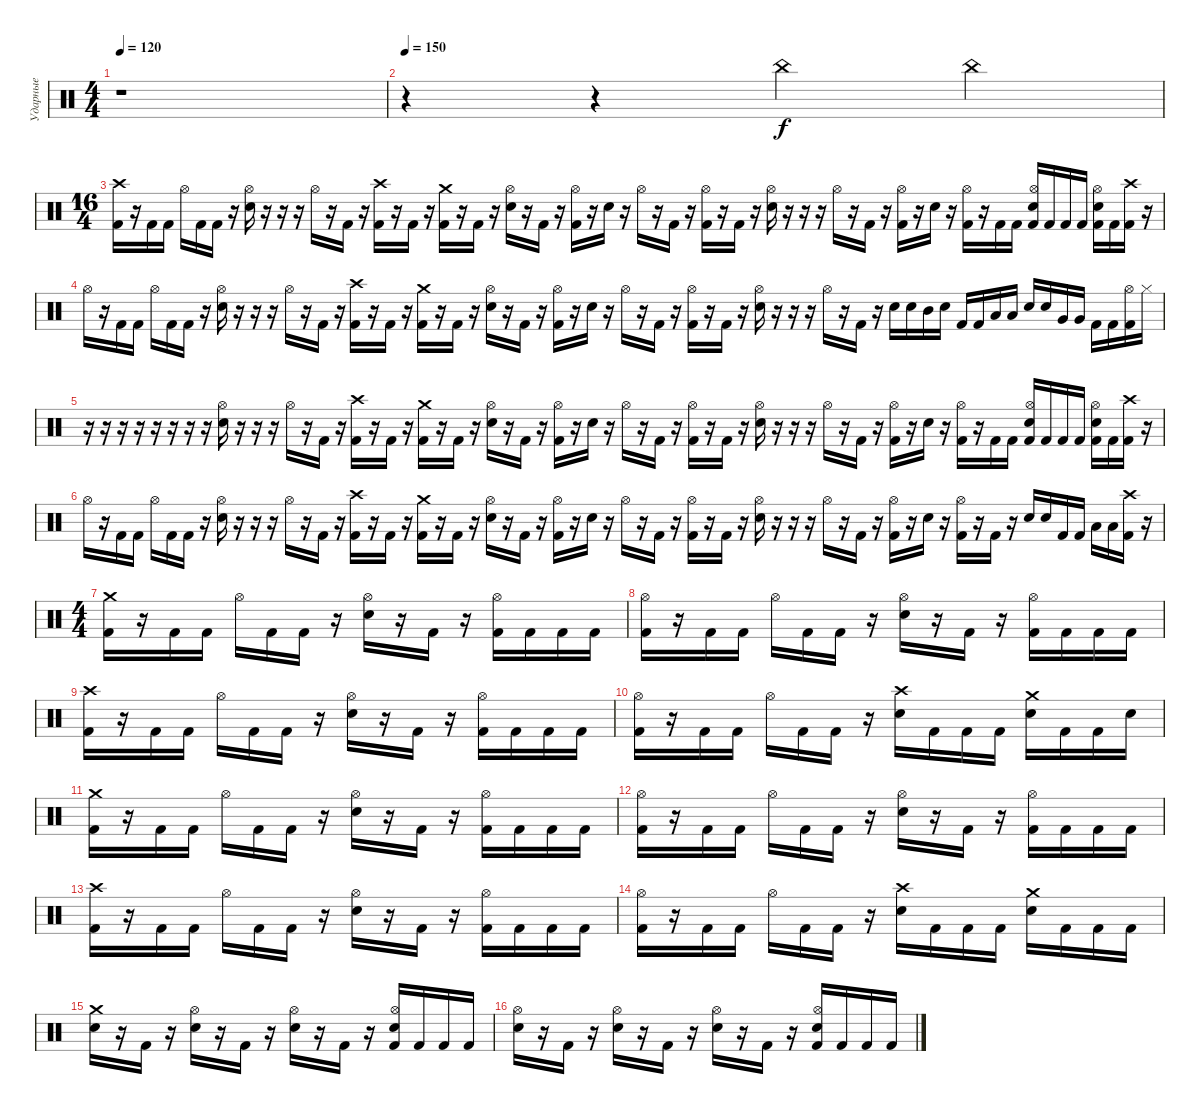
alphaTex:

\track ("Ударные" "Ударные") {instrument percussion}
\staff {score}
\articulation defaults
\ts (4 4)
\tempo 120
\clef neutral
\ks c
r.1{dy f} |
\tempo 150
r.4 r.4 "China (hit)".4 "China (hit)".4 |
\ts (16 4)
("Kick (hit) 2" "Crash high (hit)").16 r.16 "Kick (hit) 2".16 "Kick (hit) 2".16 "Hi-Hat (open)".16 "Kick (hit) 2".16 "Kick (hit) 2".16 r.16 ("Electric Snare (hit)" "Hi-Hat (open)").16 r.16 r.16 r.16 "Hi-Hat (open)".16 r.16 "Kick (hit) 2".16 r.16 ("Kick (hit) 2" "Crash high (hit)").16 r.16 "Kick (hit) 2".16 r.16 ("Kick (hit) 2" "Crash medium (hit)").16 r.16 "Kick (hit) 2".16 r.16 ("Electric Snare (hit)" "Hi-Hat (open)").16 r.16 "Kick (hit) 2".16 r.16 ("Kick (hit) 2" "Hi-Hat (open)").16 r.16 "Electric Snare (hit)".16 r.16 "Hi-Hat (open)".16 r.16 "Kick (hit) 2".16 r.16 ("Kick (hit) 2" "Hi-Hat (open)").16 r.16 "Kick (hit) 2".16 r.16 ("Electric Snare (hit)" "Hi-Hat (open)").16 r.16 r.16 r.16 "Hi-Hat (open)".16 r.16 "Kick (hit) 2".16 r.16 ("Kick (hit) 2" "Hi-Hat (open)").16 r.16 "Electric Snare (hit)".16 r.16 ("Kick (hit) 2" "Hi-Hat (open)").16 r.16 "Kick (hit) 2".16 "Kick (hit) 2".16 ("Kick (hit) 2" "Electric Snare (hit)" "Hi-Hat (open)").16 "Kick (hit) 2".16 "Kick (hit) 2".16 "Kick (hit) 2".16 ("Kick (hit) 2" "Electric Snare (hit)" "Hi-Hat (open)").16 "Kick (hit) 2".16 ("Kick (hit) 2" "Crash high (hit)").16 r.16 |
"Hi-Hat (open)".16 r.16 "Kick (hit) 2".16 "Kick (hit) 2".16 "Hi-Hat (open)".16 "Kick (hit) 2".16 "Kick (hit) 2".16 r.16 ("Electric Snare (hit)" "Hi-Hat (open)").16 r.16 r.16 r.16 "Hi-Hat (open)".16 r.16 "Kick (hit) 2".16 r.16 ("Kick (hit) 2" "Crash high (hit)").16 r.16 "Kick (hit) 2".16 r.16 ("Kick (hit) 2" "Crash medium (hit)").16 r.16 "Kick (hit) 2".16 r.16 ("Electric Snare (hit)" "Hi-Hat (open)").16 r.16 "Kick (hit) 2".16 r.16 ("Kick (hit) 2" "Hi-Hat (open)").16 r.16 "Electric Snare (hit)".16 r.16 "Hi-Hat (open)".16 r.16 "Kick (hit) 2".16 r.16 ("Kick (hit) 2" "Hi-Hat (open)").16 r.16 "Kick (hit) 2".16 r.16 ("Electric Snare (hit)" "Hi-Hat (open)").16 r.16 r.16 r.16 "Hi-Hat (open)".16 r.16 "Kick (hit) 2".16 r.16 "Electric Snare (hit)".16 "Electric Snare (hit)".16 "Mid Tom (hit)".16 "Electric Snare (hit)".16 "Kick (hit) 2".16 "Kick (hit) 2".16 "Low Tom (hit)".16 "Low Tom (hit)".16 "Electric Snare (hit)".16 "Electric Snare (hit)".16 "Very Low Tom (hit)".16 "Very Low Tom (hit)".16 "Kick (hit) 2".16 "Kick (hit) 2".16 ("Kick (hit) 2" "Hi-Hat (open)").16 "Hi-Hat (closed)".16 |
r.16 r.16 r.16 r.16 r.16 r.16 r.16 r.16 ("Electric Snare (hit)" "Hi-Hat (open)").16 r.16 r.16 r.16 "Hi-Hat (open)".16 r.16 "Kick (hit) 2".16 r.16 ("Kick (hit) 2" "Crash high (hit)").16 r.16 "Kick (hit) 2".16 r.16 ("Kick (hit) 2" "Crash medium (hit)").16 r.16 "Kick (hit) 2".16 r.16 ("Electric Snare (hit)" "Hi-Hat (open)").16 r.16 "Kick (hit) 2".16 r.16 ("Kick (hit) 2" "Hi-Hat (open)").16 r.16 "Electric Snare (hit)".16 r.16 "Hi-Hat (open)".16 r.16 "Kick (hit) 2".16 r.16 ("Kick (hit) 2" "Hi-Hat (open)").16 r.16 "Kick (hit) 2".16 r.16 ("Electric Snare (hit)" "Hi-Hat (open)").16 r.16 r.16 r.16 "Hi-Hat (open)".16 r.16 "Kick (hit) 2".16 r.16 ("Kick (hit) 2" "Hi-Hat (open)").16 r.16 "Electric Snare (hit)".16 r.16 ("Kick (hit) 2" "Hi-Hat (open)").16 r.16 "Kick (hit) 2".16 "Kick (hit) 2".16 ("Kick (hit) 2" "Electric Snare (hit)" "Hi-Hat (open)").16 "Kick (hit) 2".16 "Kick (hit) 2".16 "Kick (hit) 2".16 ("Kick (hit) 2" "Electric Snare (hit)" "Hi-Hat (open)").16 "Kick (hit) 2".16 ("Kick (hit) 2" "Crash high (hit)").16 r.16 |
"Hi-Hat (open)".16 r.16 "Kick (hit) 2".16 "Kick (hit) 2".16 "Hi-Hat (open)".16 "Kick (hit) 2".16 "Kick (hit) 2".16 r.16 ("Electric Snare (hit)" "Hi-Hat (open)").16 r.16 r.16 r.16 "Hi-Hat (open)".16 r.16 "Kick (hit) 2".16 r.16 ("Kick (hit) 2" "Crash high (hit)").16 r.16 "Kick (hit) 2".16 r.16 ("Kick (hit) 2" "Crash medium (hit)").16 r.16 "Kick (hit) 2".16 r.16 ("Electric Snare (hit)" "Hi-Hat (open)").16 r.16 "Kick (hit) 2".16 r.16 ("Kick (hit) 2" "Hi-Hat (open)").16 r.16 "Electric Snare (hit)".16 r.16 "Hi-Hat (open)".16 r.16 "Kick (hit) 2".16 r.16 ("Kick (hit) 2" "Hi-Hat (open)").16 r.16 "Kick (hit) 2".16 r.16 ("Electric Snare (hit)" "Hi-Hat (open)").16 r.16 r.16 r.16 "Hi-Hat (open)".16 r.16 "Kick (hit) 2".16 r.16 ("Kick (hit) 2" "Hi-Hat (open)").16 r.16 "Electric Snare (hit)".16 r.16 ("Kick (hit) 2" "Hi-Hat (open)").16 r.16 "Kick (hit) 2".16 r.16 "Electric Snare (hit)".16 "Electric Snare (hit)".16 "Kick (hit) 2".16 "Kick (hit) 2".16 "Low Tom (hit)".16 "Low Tom (hit)".16 ("Kick (hit) 2" "Crash high (hit)").16 r.16 |
\ts (4 4)
("Kick (hit) 2" "Crash medium (hit)").16 r.16 "Kick (hit) 2".16 "Kick (hit) 2".16 "Hi-Hat (open)".16 "Kick (hit) 2".16 "Kick (hit) 2".16 r.16 ("Electric Snare (hit)" "Hi-Hat (open)").16 r.16 "Kick (hit) 2".16 r.16 ("Kick (hit) 2" "Hi-Hat (open)").16 "Kick (hit) 2".16 "Kick (hit) 2".16 "Kick (hit) 2".16 |
("Kick (hit) 2" "Hi-Hat (open)").16 r.16 "Kick (hit) 2".16 "Kick (hit) 2".16 "Hi-Hat (open)".16 "Kick (hit) 2".16 "Kick (hit) 2".16 r.16 ("Electric Snare (hit)" "Hi-Hat (open)").16 r.16 "Kick (hit) 2".16 r.16 ("Kick (hit) 2" "Hi-Hat (open)").16 "Kick (hit) 2".16 "Kick (hit) 2".16 "Kick (hit) 2".16 |
("Kick (hit) 2" "Crash high (hit)").16 r.16 "Kick (hit) 2".16 "Kick (hit) 2".16 "Hi-Hat (open)".16 "Kick (hit) 2".16 "Kick (hit) 2".16 r.16 ("Electric Snare (hit)" "Hi-Hat (open)").16 r.16 "Kick (hit) 2".16 r.16 ("Kick (hit) 2" "Hi-Hat (open)").16 "Kick (hit) 2".16 "Kick (hit) 2".16 "Kick (hit) 2".16 |
("Kick (hit) 2" "Hi-Hat (open)").16 r.16 "Kick (hit) 2".16 "Kick (hit) 2".16 "Hi-Hat (open)".16 "Kick (hit) 2".16 "Kick (hit) 2".16 r.16 ("Electric Snare (hit)" "Crash high (hit)").16 "Kick (hit) 2".16 "Kick (hit) 2".16 "Kick (hit) 2".16 ("Electric Snare (hit)" "Crash medium (hit)").16 "Kick (hit) 2".16 "Kick (hit) 2".16 "Electric Snare (hit)".16 |
("Kick (hit) 2" "Crash medium (hit)").16 r.16 "Kick (hit) 2".16 "Kick (hit) 2".16 "Hi-Hat (open)".16 "Kick (hit) 2".16 "Kick (hit) 2".16 r.16 ("Electric Snare (hit)" "Hi-Hat (open)").16 r.16 "Kick (hit) 2".16 r.16 ("Kick (hit) 2" "Hi-Hat (open)").16 "Kick (hit) 2".16 "Kick (hit) 2".16 "Kick (hit) 2".16 |
("Kick (hit) 2" "Hi-Hat (open)").16 r.16 "Kick (hit) 2".16 "Kick (hit) 2".16 "Hi-Hat (open)".16 "Kick (hit) 2".16 "Kick (hit) 2".16 r.16 ("Electric Snare (hit)" "Hi-Hat (open)").16 r.16 "Kick (hit) 2".16 r.16 ("Kick (hit) 2" "Hi-Hat (open)").16 "Kick (hit) 2".16 "Kick (hit) 2".16 "Kick (hit) 2".16 |
("Kick (hit) 2" "Crash high (hit)").16 r.16 "Kick (hit) 2".16 "Kick (hit) 2".16 "Hi-Hat (open)".16 "Kick (hit) 2".16 "Kick (hit) 2".16 r.16 ("Electric Snare (hit)" "Hi-Hat (open)").16 r.16 "Kick (hit) 2".16 r.16 ("Kick (hit) 2" "Hi-Hat (open)").16 "Kick (hit) 2".16 "Kick (hit) 2".16 "Kick (hit) 2".16 |
("Kick (hit) 2" "Hi-Hat (open)").16 r.16 "Kick (hit) 2".16 "Kick (hit) 2".16 "Hi-Hat (open)".16 "Kick (hit) 2".16 "Kick (hit) 2".16 r.16 ("Electric Snare (hit)" "Crash high (hit)").16 "Kick (hit) 2".16 "Kick (hit) 2".16 "Kick (hit) 2".16 ("Electric Snare (hit)" "Crash medium (hit)").16 "Kick (hit) 2".16 "Kick (hit) 2".16 "Kick (hit) 2".16 |
("Electric Snare (hit)" "Crash medium (hit)").16 r.16 "Kick (hit) 2".16 r.16 ("Electric Snare (hit)" "Hi-Hat (open)").16 r.16 "Kick (hit) 2".16 r.16 ("Electric Snare (hit)" "Hi-Hat (open)").16 r.16 "Kick (hit) 2".16 r.16 ("Kick (hit) 2" "Electric Snare (hit)" "Hi-Hat (open)").16 "Kick (hit) 2".16 "Kick (hit) 2".16 "Kick (hit) 2".16 |
("Electric Snare (hit)" "Hi-Hat (open)").16 r.16 "Kick (hit) 2".16 r.16 ("Electric Snare (hit)" "Hi-Hat (open)").16 r.16 "Kick (hit) 2".16 r.16 ("Electric Snare (hit)" "Hi-Hat (open)").16 r.16 "Kick (hit) 2".16 r.16 ("Kick (hit) 2" "Electric Snare (hit)" "Hi-Hat (open)").16 "Kick (hit) 2".16 "Kick (hit) 2".16 "Kick (hit) 2".16
